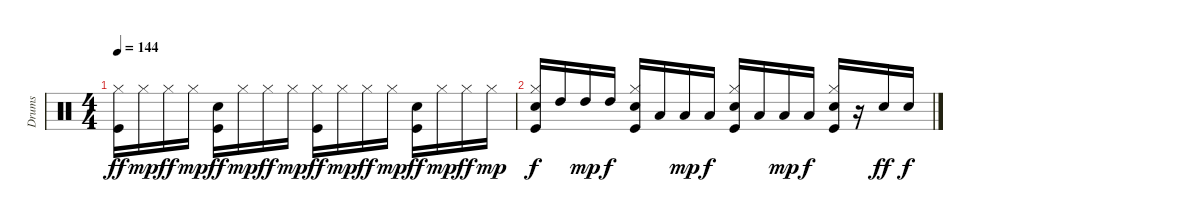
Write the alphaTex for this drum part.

\track ("Drums" "Drums") {instrument percussion}
\staff {score}
\articulation defaults
\ts (4 4)
\tempo 144
\clef neutral
\ks c
("Kick (hit)" "Hi-Hat (closed)").16{dy ff} "Hi-Hat (closed)".16{dy mp} "Hi-Hat (closed)".16{dy ff} "Hi-Hat (closed)".16{dy mp} ("Kick (hit)" "Snare (hit) 2").16{dy ff} "Hi-Hat (closed)".16{dy mp} "Hi-Hat (closed)".16{dy ff} "Hi-Hat (closed)".16{dy mp} ("Kick (hit)" "Hi-Hat (closed)").16{dy ff} "Hi-Hat (closed)".16{dy mp} "Hi-Hat (closed)".16{dy ff} "Hi-Hat (closed)".16{dy mp} ("Kick (hit)" "Snare (hit) 2").16{dy ff} "Hi-Hat (closed)".16{dy mp} "Hi-Hat (closed)".16{dy ff} "Hi-Hat (closed)".16{dy mp} |
("Kick (hit)" "Snare (hit) 2" "Hi-Hat (closed)").16{dy f} "High Tom (hit)".16 "High Tom (hit)".16{dy mp} "High Tom (hit)".16{dy f} ("Kick (hit)" "Snare (hit) 2" "Hi-Hat (closed)").16 "Low Tom (hit)".16 "Low Tom (hit)".16{dy mp} "Low Tom (hit)".16{dy f} ("Kick (hit)" "Snare (hit) 2" "Hi-Hat (closed)").16 "Low Floor Tom (hit)".16 "Low Floor Tom (hit)".16{dy mp} "Low Floor Tom (hit)".16{dy f} ("Kick (hit)" "Snare (hit) 2" "Hi-Hat (closed)").16 r.16 "Snare (hit) 2".16{dy ff} "Snare (hit) 2".16{dy f}
